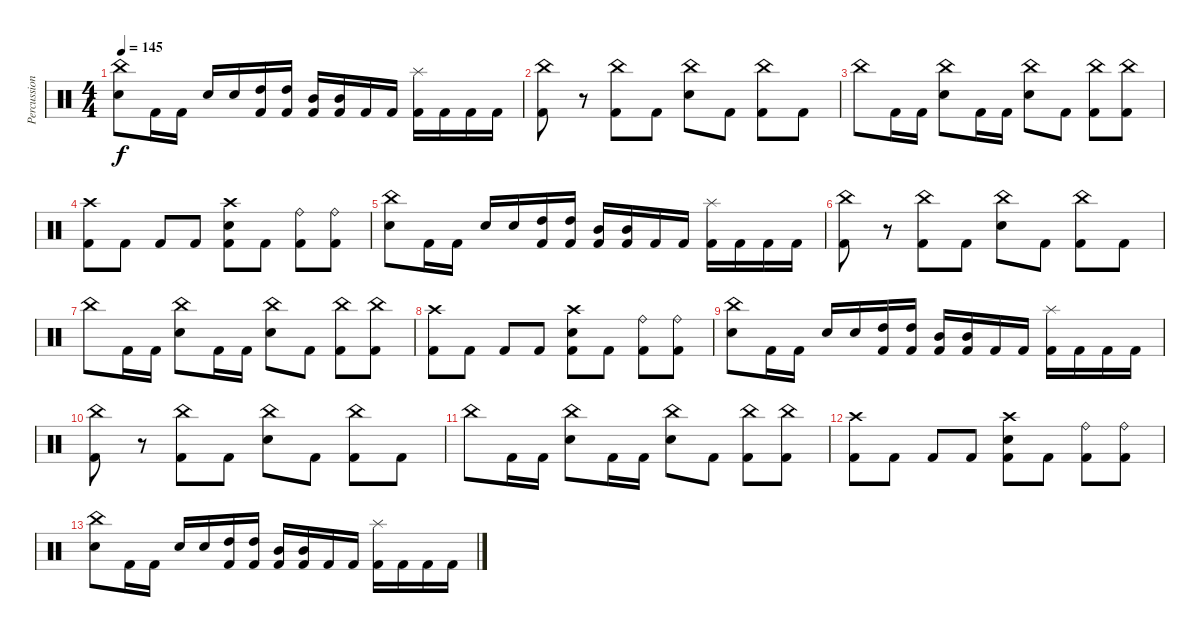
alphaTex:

\track ("Percussion" "Percussion") {instrument percussion}
\staff {score}
\articulation defaults
\ts (4 4)
\tempo 145
\clef neutral
\ks c
("China (hit)" "Snare (hit) 2").8{dy f} "Kick (hit) 2".16 "Kick (hit) 2".16 "Snare (hit) 2".16 "Snare (hit) 2".16 ("High Tom (hit)" "Kick (hit) 2").16 ("High Tom (hit)" "Kick (hit) 2").16 ("Mid Tom (hit)" "Kick (hit) 2").16 ("Mid Tom (hit)" "Kick (hit) 2").16 "Kick (hit) 2".16 "Kick (hit) 2".16 ("Splash (hit)" "Kick (hit) 2").16 "Kick (hit) 2".16 "Kick (hit) 2".16 "Kick (hit) 2".16 |
("China (hit)" "Kick (hit) 2").8 r.8 ("China (hit)" "Kick (hit) 2").8 "Kick (hit) 2".8 ("China (hit)" "Snare (hit) 2").8 "Kick (hit) 2".8 ("China (hit)" "Kick (hit) 2").8 "Kick (hit) 2".8 |
"China (hit)".8 "Kick (hit) 2".16 "Kick (hit) 2".16 ("China (hit)" "Snare (hit) 2").8 "Kick (hit) 2".16 "Kick (hit) 2".16 ("China (hit)" "Snare (hit) 2").8 "Kick (hit) 2".8 ("China (hit)" "Kick (hit) 2").8 ("China (hit)" "Kick (hit) 2").8 |
("Crash high (hit)" "Kick (hit) 2").8 "Kick (hit) 2".8 "Kick (hit) 2".8 "Kick (hit) 2".8 ("Crash high (hit)" "Snare (hit) 2" "Kick (hit) 2").8 "Kick (hit) 2".8 ("Ride (bell)" "Kick (hit) 2").8 ("Ride (bell)" "Kick (hit) 2").8 |
("China (hit)" "Snare (hit) 2").8 "Kick (hit) 2".16 "Kick (hit) 2".16 "Snare (hit) 2".16 "Snare (hit) 2".16 ("High Tom (hit)" "Kick (hit) 2").16 ("High Tom (hit)" "Kick (hit) 2").16 ("Mid Tom (hit)" "Kick (hit) 2").16 ("Mid Tom (hit)" "Kick (hit) 2").16 "Kick (hit) 2".16 "Kick (hit) 2".16 ("Splash (hit)" "Kick (hit) 2").16 "Kick (hit) 2".16 "Kick (hit) 2".16 "Kick (hit) 2".16 |
("China (hit)" "Kick (hit) 2").8 r.8 ("China (hit)" "Kick (hit) 2").8 "Kick (hit) 2".8 ("China (hit)" "Snare (hit) 2").8 "Kick (hit) 2".8 ("China (hit)" "Kick (hit) 2").8 "Kick (hit) 2".8 |
"China (hit)".8 "Kick (hit) 2".16 "Kick (hit) 2".16 ("China (hit)" "Snare (hit) 2").8 "Kick (hit) 2".16 "Kick (hit) 2".16 ("China (hit)" "Snare (hit) 2").8 "Kick (hit) 2".8 ("China (hit)" "Kick (hit) 2").8 ("China (hit)" "Kick (hit) 2").8 |
("Crash high (hit)" "Kick (hit) 2").8 "Kick (hit) 2".8 "Kick (hit) 2".8 "Kick (hit) 2".8 ("Crash high (hit)" "Snare (hit) 2" "Kick (hit) 2").8 "Kick (hit) 2".8 ("Ride (bell)" "Kick (hit) 2").8 ("Ride (bell)" "Kick (hit) 2").8 |
("China (hit)" "Snare (hit) 2").8 "Kick (hit) 2".16 "Kick (hit) 2".16 "Snare (hit) 2".16 "Snare (hit) 2".16 ("High Tom (hit)" "Kick (hit) 2").16 ("High Tom (hit)" "Kick (hit) 2").16 ("Mid Tom (hit)" "Kick (hit) 2").16 ("Mid Tom (hit)" "Kick (hit) 2").16 "Kick (hit) 2".16 "Kick (hit) 2".16 ("Splash (hit)" "Kick (hit) 2").16 "Kick (hit) 2".16 "Kick (hit) 2".16 "Kick (hit) 2".16 |
("China (hit)" "Kick (hit) 2").8 r.8 ("China (hit)" "Kick (hit) 2").8 "Kick (hit) 2".8 ("China (hit)" "Snare (hit) 2").8 "Kick (hit) 2".8 ("China (hit)" "Kick (hit) 2").8 "Kick (hit) 2".8 |
"China (hit)".8 "Kick (hit) 2".16 "Kick (hit) 2".16 ("China (hit)" "Snare (hit) 2").8 "Kick (hit) 2".16 "Kick (hit) 2".16 ("China (hit)" "Snare (hit) 2").8 "Kick (hit) 2".8 ("China (hit)" "Kick (hit) 2").8 ("China (hit)" "Kick (hit) 2").8 |
("Crash high (hit)" "Kick (hit) 2").8 "Kick (hit) 2".8 "Kick (hit) 2".8 "Kick (hit) 2".8 ("Crash high (hit)" "Snare (hit) 2" "Kick (hit) 2").8 "Kick (hit) 2".8 ("Ride (bell)" "Kick (hit) 2").8 ("Ride (bell)" "Kick (hit) 2").8 |
("China (hit)" "Snare (hit) 2").8 "Kick (hit) 2".16 "Kick (hit) 2".16 "Snare (hit) 2".16 "Snare (hit) 2".16 ("High Tom (hit)" "Kick (hit) 2").16 ("High Tom (hit)" "Kick (hit) 2").16 ("Mid Tom (hit)" "Kick (hit) 2").16 ("Mid Tom (hit)" "Kick (hit) 2").16 "Kick (hit) 2".16 "Kick (hit) 2".16 ("Splash (hit)" "Kick (hit) 2").16 "Kick (hit) 2".16 "Kick (hit) 2".16 "Kick (hit) 2".16
